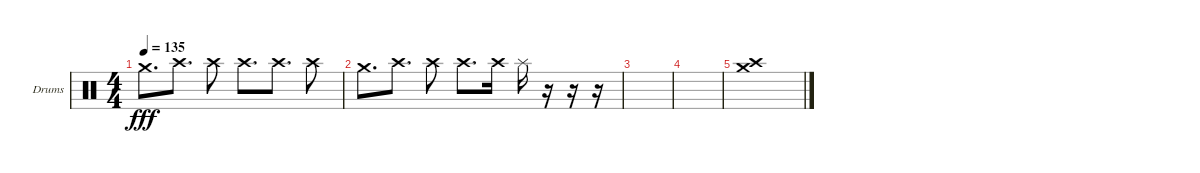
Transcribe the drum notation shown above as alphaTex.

\defaultSystemsLayout 4
\bracketExtendMode groupsimilarinstruments
\firstSystemTrackNameOrientation horizontal
\otherSystemsTrackNameOrientation horizontal
\track ("Matt Helders" "Drums") {instrument percussion}
\staff {score}
\articulation defaults
\ts (4 4)
\tempo 135
\clef neutral
\ks c "Crash medium (hit)".8{d dy fff} "Crash high (hit)".8{d} "Crash high (hit)".8 "Crash high (hit)".8{d} "Crash high (hit)".8{d} "Crash high (hit)".8
|
"Crash medium (hit)".8{d} "Crash high (hit)".8{d} "Crash high (hit)".8 "Crash high (hit)".8{d} "Crash high (hit)".16 "Splash (hit)".16 r.16 r.16 r.16 |
|
|
("Crash medium (hit)" "Crash high (hit)").1
